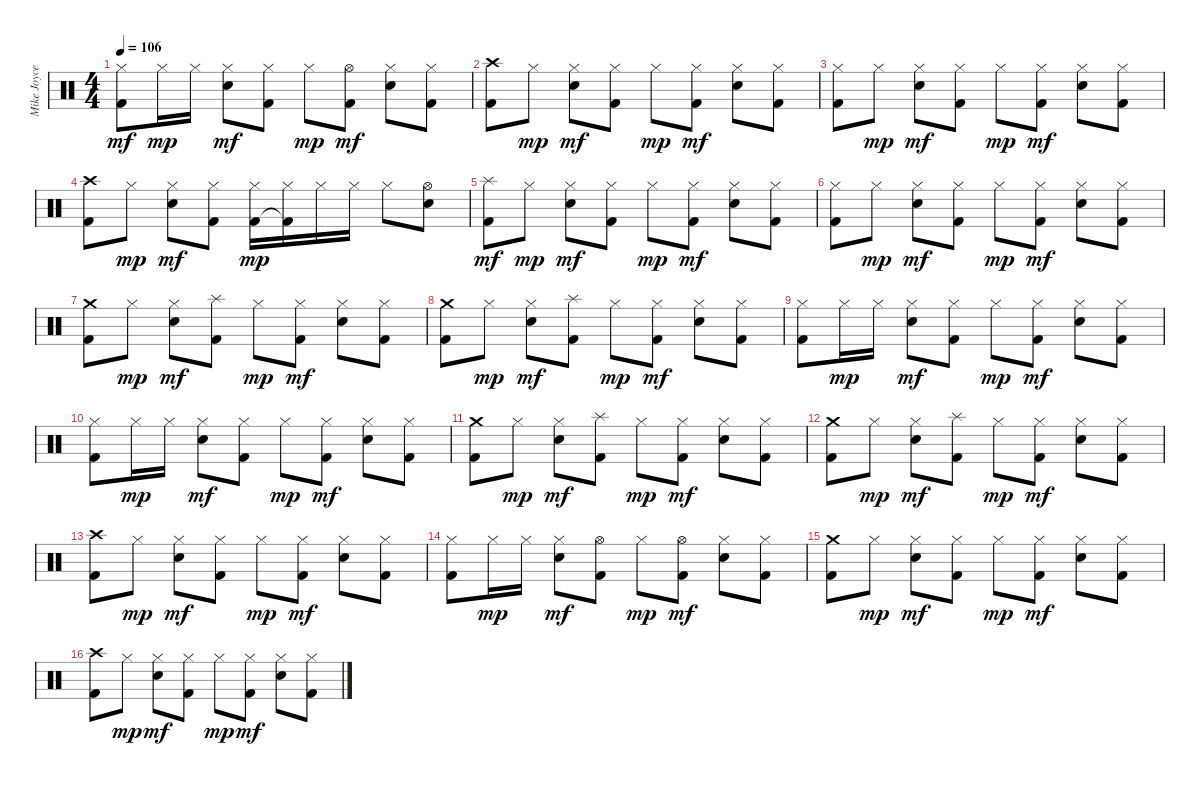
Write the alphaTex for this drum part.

\track ("Mike Joyce" "Mike Joyce") {instrument percussion}
\staff {score}
\articulation defaults
\ts (4 4)
\tempo 106
\clef neutral
\ks c
("Hi-Hat (closed)" "Kick (hit) 2").8{dy mf} "Hi-Hat (closed)".16{dy mp} "Hi-Hat (closed)".16 ("Hi-Hat (closed)" "Electric Snare (hit)").8{dy mf} ("Hi-Hat (closed)" "Kick (hit) 2").8 "Hi-Hat (closed)".8{dy mp} ("Hi-Hat (open)" "Kick (hit) 2").8{dy mf} ("Hi-Hat (closed)" "Electric Snare (hit)").8 ("Hi-Hat (closed)" "Kick (hit) 2").8 |
("Crash high (hit)" "Kick (hit) 2").8 "Hi-Hat (closed)".8{dy mp} ("Hi-Hat (closed)" "Electric Snare (hit)").8{dy mf} ("Hi-Hat (closed)" "Kick (hit) 2").8 "Hi-Hat (closed)".8{dy mp} ("Hi-Hat (closed)" "Kick (hit) 2").8{dy mf} ("Hi-Hat (closed)" "Electric Snare (hit)").8 ("Hi-Hat (closed)" "Kick (hit) 2").8 |
("Hi-Hat (closed)" "Kick (hit) 2").8 "Hi-Hat (closed)".8{dy mp} ("Hi-Hat (closed)" "Electric Snare (hit)").8{dy mf} ("Hi-Hat (closed)" "Kick (hit) 2").8 "Hi-Hat (closed)".8{dy mp} ("Hi-Hat (closed)" "Kick (hit) 2").8{dy mf} ("Hi-Hat (closed)" "Electric Snare (hit)").8 ("Hi-Hat (closed)" "Kick (hit) 2").8 |
("Crash high (hit)" "Kick (hit) 2").8 "Hi-Hat (closed)".8{dy mp} ("Hi-Hat (closed)" "Electric Snare (hit)").8{dy mf} ("Hi-Hat (closed)" "Kick (hit) 2").8 ("Hi-Hat (closed)" "Kick (hit) 2").16{dy mp} ("Hi-Hat (closed)" "Kick (hit) 2"{t}).16 "Hi-Hat (closed)".16 "Hi-Hat (closed)".16 "Hi-Hat (closed)".8 ("Hi-Hat (open)" "Electric Snare (hit)").8 |
("Splash (hit)" "Kick (hit) 2").8{dy mf} "Hi-Hat (closed)".8{dy mp} ("Hi-Hat (closed)" "Electric Snare (hit)").8{dy mf} ("Hi-Hat (closed)" "Kick (hit) 2").8 "Hi-Hat (closed)".8{dy mp} ("Hi-Hat (closed)" "Kick (hit) 2").8{dy mf} ("Hi-Hat (closed)" "Electric Snare (hit)").8 ("Hi-Hat (closed)" "Kick (hit) 2").8 |
("Hi-Hat (closed)" "Kick (hit) 2").8 "Hi-Hat (closed)".8{dy mp} ("Hi-Hat (closed)" "Electric Snare (hit)").8{dy mf} ("Hi-Hat (closed)" "Kick (hit) 2").8 "Hi-Hat (closed)".8{dy mp} ("Hi-Hat (closed)" "Kick (hit) 2").8{dy mf} ("Hi-Hat (closed)" "Electric Snare (hit)").8 ("Hi-Hat (closed)" "Kick (hit) 2").8 |
("Crash medium (hit)" "Kick (hit) 2").8 "Hi-Hat (closed)".8{dy mp} ("Hi-Hat (closed)" "Electric Snare (hit)").8{dy mf} ("Splash (hit)" "Kick (hit) 2").8 "Hi-Hat (closed)".8{dy mp} ("Hi-Hat (closed)" "Kick (hit) 2").8{dy mf} ("Hi-Hat (closed)" "Electric Snare (hit)").8 ("Hi-Hat (closed)" "Kick (hit) 2").8 |
("Crash medium (hit)" "Kick (hit) 2").8 "Hi-Hat (closed)".8{dy mp} ("Hi-Hat (closed)" "Electric Snare (hit)").8{dy mf} ("Splash (hit)" "Kick (hit) 2").8 "Hi-Hat (closed)".8{dy mp} ("Hi-Hat (closed)" "Kick (hit) 2").8{dy mf} ("Hi-Hat (closed)" "Electric Snare (hit)").8 ("Hi-Hat (closed)" "Kick (hit) 2").8 |
("Hi-Hat (closed)" "Kick (hit) 2").8 "Hi-Hat (closed)".16{dy mp} "Hi-Hat (closed)".16 ("Hi-Hat (closed)" "Electric Snare (hit)").8{dy mf} ("Hi-Hat (closed)" "Kick (hit) 2").8 "Hi-Hat (closed)".8{dy mp} ("Hi-Hat (closed)" "Kick (hit) 2").8{dy mf} ("Hi-Hat (closed)" "Electric Snare (hit)").8 ("Hi-Hat (closed)" "Kick (hit) 2").8 |
("Hi-Hat (closed)" "Kick (hit) 2").8 "Hi-Hat (closed)".16{dy mp} "Hi-Hat (closed)".16 ("Hi-Hat (closed)" "Electric Snare (hit)").8{dy mf} ("Hi-Hat (closed)" "Kick (hit) 2").8 "Hi-Hat (closed)".8{dy mp} ("Hi-Hat (closed)" "Kick (hit) 2").8{dy mf} ("Hi-Hat (closed)" "Electric Snare (hit)").8 ("Hi-Hat (closed)" "Kick (hit) 2").8 |
("Crash medium (hit)" "Kick (hit) 2").8 "Hi-Hat (closed)".8{dy mp} ("Hi-Hat (closed)" "Electric Snare (hit)").8{dy mf} ("Splash (hit)" "Kick (hit) 2").8 "Hi-Hat (closed)".8{dy mp} ("Hi-Hat (closed)" "Kick (hit) 2").8{dy mf} ("Hi-Hat (closed)" "Electric Snare (hit)").8 ("Hi-Hat (closed)" "Kick (hit) 2").8 |
("Crash medium (hit)" "Kick (hit) 2").8 "Hi-Hat (closed)".8{dy mp} ("Hi-Hat (closed)" "Electric Snare (hit)").8{dy mf} ("Splash (hit)" "Kick (hit) 2").8 "Hi-Hat (closed)".8{dy mp} ("Hi-Hat (closed)" "Kick (hit) 2").8{dy mf} ("Hi-Hat (closed)" "Electric Snare (hit)").8 ("Hi-Hat (closed)" "Kick (hit) 2").8 |
("Crash high (hit)" "Kick (hit) 2").8 "Hi-Hat (closed)".8{dy mp} ("Hi-Hat (closed)" "Electric Snare (hit)").8{dy mf} ("Hi-Hat (closed)" "Kick (hit) 2").8 "Hi-Hat (closed)".8{dy mp} ("Hi-Hat (closed)" "Kick (hit) 2").8{dy mf} ("Hi-Hat (closed)" "Electric Snare (hit)").8 ("Hi-Hat (closed)" "Kick (hit) 2").8 |
("Hi-Hat (closed)" "Kick (hit) 2").8 "Hi-Hat (closed)".16{dy mp} "Hi-Hat (closed)".16 ("Hi-Hat (closed)" "Electric Snare (hit)").8{dy mf} ("Hi-Hat (open)" "Kick (hit) 2").8 "Hi-Hat (closed)".8{dy mp} ("Hi-Hat (open)" "Kick (hit) 2").8{dy mf} ("Hi-Hat (closed)" "Electric Snare (hit)").8 ("Hi-Hat (closed)" "Kick (hit) 2").8 |
("Crash medium (hit)" "Kick (hit) 2").8 "Hi-Hat (closed)".8{dy mp} ("Hi-Hat (closed)" "Electric Snare (hit)").8{dy mf} ("Hi-Hat (closed)" "Kick (hit) 2").8 "Hi-Hat (closed)".8{dy mp} ("Hi-Hat (closed)" "Kick (hit) 2").8{dy mf} ("Hi-Hat (closed)" "Electric Snare (hit)").8 ("Hi-Hat (closed)" "Kick (hit) 2").8 |
("Crash high (hit)" "Kick (hit) 2").8 "Hi-Hat (closed)".8{dy mp} ("Hi-Hat (closed)" "Electric Snare (hit)").8{dy mf} ("Hi-Hat (closed)" "Kick (hit) 2").8 "Hi-Hat (closed)".8{dy mp} ("Hi-Hat (closed)" "Kick (hit) 2").8{dy mf} ("Hi-Hat (closed)" "Electric Snare (hit)").8 ("Hi-Hat (closed)" "Kick (hit) 2").8
